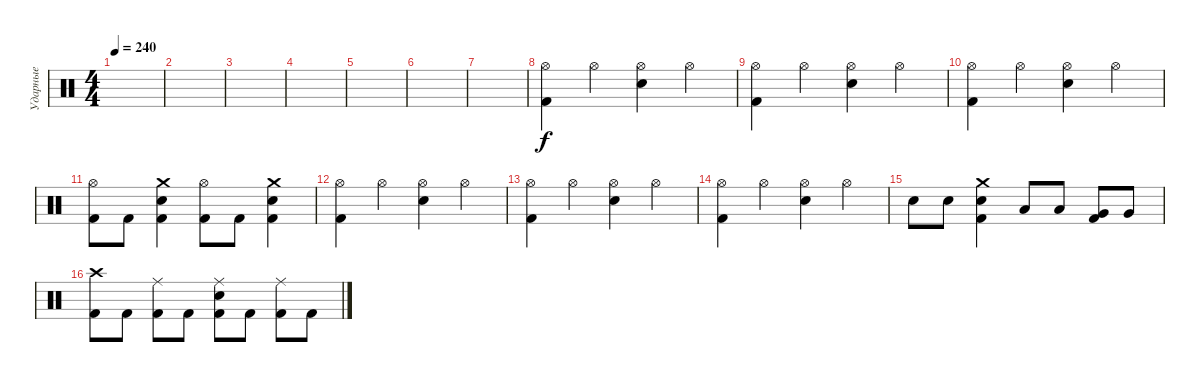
\track ("Ударные" "Ударные") {instrument percussion}
\staff {score}
\articulation defaults
\ts (4 4)
\tempo 240
\clef neutral
\ks c
|
|
|
|
|
|
|
("Hi-Hat (open)" "Kick (hit) 2").4 "Hi-Hat (open)".4 ("Hi-Hat (open)" "Snare (hit) 2").4 "Hi-Hat (open)".4 |
("Hi-Hat (open)" "Kick (hit) 2").4 "Hi-Hat (open)".4 ("Hi-Hat (open)" "Snare (hit) 2").4 "Hi-Hat (open)".4 |
("Hi-Hat (open)" "Kick (hit) 2").4 "Hi-Hat (open)".4 ("Hi-Hat (open)" "Snare (hit) 2").4 "Hi-Hat (open)".4 |
("Hi-Hat (open)" "Kick (hit) 2").8 "Kick (hit) 2".8 ("Crash medium (hit)" "Snare (hit) 2" "Kick (hit) 2").4 ("Hi-Hat (open)" "Kick (hit) 2").8 "Kick (hit) 2".8 ("Crash medium (hit)" "Snare (hit) 2" "Kick (hit) 2").4 |
("Hi-Hat (open)" "Kick (hit) 2").4 "Hi-Hat (open)".4 ("Hi-Hat (open)" "Snare (hit) 2").4 "Hi-Hat (open)".4 |
("Hi-Hat (open)" "Kick (hit) 2").4 "Hi-Hat (open)".4 ("Hi-Hat (open)" "Snare (hit) 2").4 "Hi-Hat (open)".4 |
("Hi-Hat (open)" "Kick (hit) 2").4 "Hi-Hat (open)".4 ("Hi-Hat (open)" "Snare (hit) 2").4 "Hi-Hat (open)".4 |
"Snare (hit) 2".8 "Snare (hit) 2".8 ("Crash medium (hit)" "Snare (hit) 2" "Kick (hit) 2").4 "Low Tom (hit)".8 "Low Tom (hit)".8 ("Very Low Tom (hit)" "Kick (hit) 2").8 "Very Low Tom (hit)".8 |
("Crash high (hit)" "Kick (hit) 2").8 "Kick (hit) 2".8 ("Ride (middle)" "Kick (hit) 2").8 "Kick (hit) 2".8 ("Ride (middle)" "Snare (hit) 2" "Kick (hit) 2").8 "Kick (hit) 2".8 ("Ride (middle)" "Kick (hit) 2").8 "Kick (hit) 2".8
